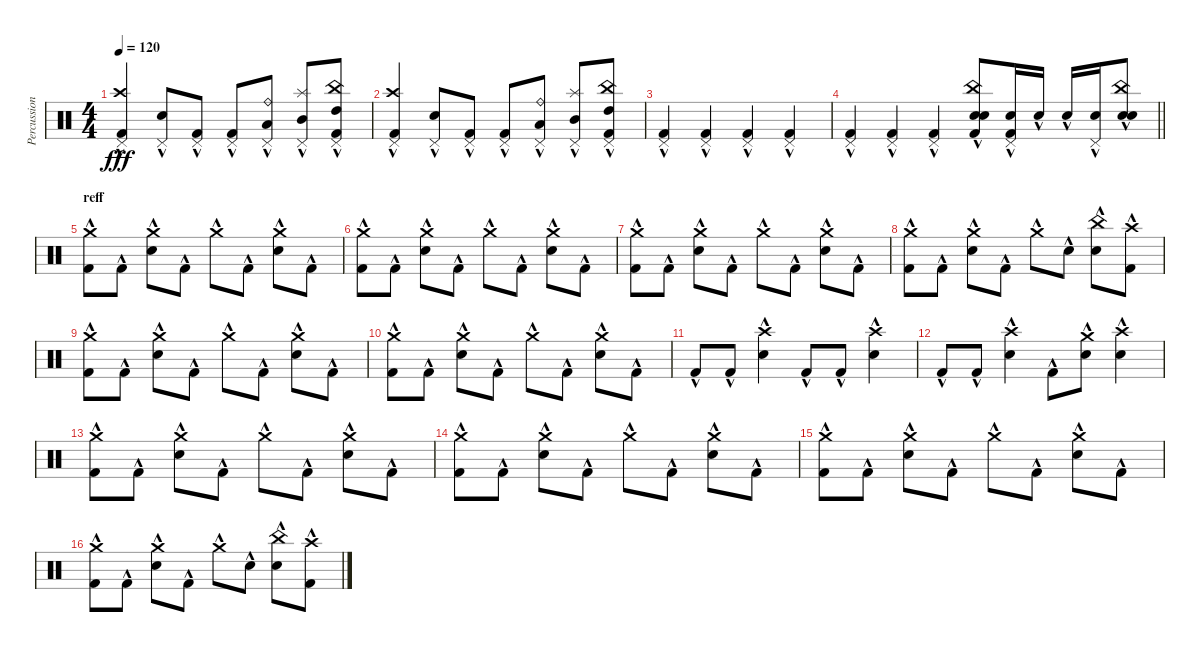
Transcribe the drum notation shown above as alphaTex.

\track ("Percussion" "Percussion") {instrument percussion}
\staff {score}
\articulation defaults
\ts (4 4)
\tempo 120
\clef neutral
\ks c
("Pedal Hi-Hat (hit)" "Crash high (hit)"{hac} "Kick (hit) 2"{hac}).4{dy fff} ("Pedal Hi-Hat (hit)" "Electric Snare (hit)"{hac}).8 ("Pedal Hi-Hat (hit)" "Kick (hit) 2"{hac}).8 ("Pedal Hi-Hat (hit)" "Kick (hit) 2"{hac}).8 ("Ride (bell)"{hac} "Low Tom (hit)"{hac} "Pedal Hi-Hat (hit)").8 ("Splash (hit)"{hac} "Mid Tom (hit)"{hac} "Pedal Hi-Hat (hit)").8 ("China (hit)"{hac} "High Tom (hit)"{hac} "Kick (hit) 2"{hac} "Pedal Hi-Hat (hit)").8 |
("Pedal Hi-Hat (hit)" "Crash high (hit)"{hac} "Kick (hit) 2"{hac}).4 ("Pedal Hi-Hat (hit)" "Electric Snare (hit)"{hac}).8 ("Pedal Hi-Hat (hit)" "Kick (hit) 2"{hac}).8 ("Pedal Hi-Hat (hit)" "Kick (hit) 2"{hac}).8 ("Ride (bell)"{hac} "Low Tom (hit)"{hac} "Pedal Hi-Hat (hit)").8 ("Splash (hit)"{hac} "Mid Tom (hit)"{hac} "Pedal Hi-Hat (hit)").8 ("China (hit)"{hac} "High Tom (hit)"{hac} "Kick (hit) 2"{hac} "Pedal Hi-Hat (hit)").8 |
("Pedal Hi-Hat (hit)"{hac} "Kick (hit) 2"{hac}).4 ("Pedal Hi-Hat (hit)"{hac} "Kick (hit) 2"{hac}).4 ("Pedal Hi-Hat (hit)"{hac} "Kick (hit) 2"{hac}).4 ("Pedal Hi-Hat (hit)"{hac} "Kick (hit) 2"{hac}).4 |
\barLineRight lightlight
("Pedal Hi-Hat (hit)"{hac} "Kick (hit) 2"{hac}).4 ("Pedal Hi-Hat (hit)"{hac} "Kick (hit) 2"{hac}).4 ("Pedal Hi-Hat (hit)"{hac} "Kick (hit) 2"{hac}).4 ("China (hit)"{hac} "Kick (hit) 2"{hac} "Electric Snare (hit)"{hac} "Hand Clap (hit)").8 ("Pedal Hi-Hat (hit)" "Kick (hit) 2"{hac} "Electric Snare (hit)"{hac}).16 "Electric Snare (hit)"{hac}.16 "Electric Snare (hit)"{hac}.16 ("Pedal Hi-Hat (hit)" "Electric Snare (hit)"{hac}).16 ("China (hit)"{hac} "Electric Snare (hit)"{hac} "Hand Clap (hit)").8 |
\section ("" "reff")
("Crash medium (hit)"{hac} "Kick (hit) 2"{hac}).8 "Kick (hit) 2"{hac}.8 ("Crash medium (hit)"{hac} "Electric Snare (hit)"{hac}).8 "Kick (hit) 2"{hac}.8 "Crash medium (hit)"{hac}.8 "Kick (hit) 2"{hac}.8 ("Crash medium (hit)"{hac} "Electric Snare (hit)"{hac}).8 "Kick (hit) 2"{hac}.8 |
("Crash medium (hit)"{hac} "Kick (hit) 2"{hac}).8 "Kick (hit) 2"{hac}.8 ("Crash medium (hit)"{hac} "Electric Snare (hit)"{hac}).8 "Kick (hit) 2"{hac}.8 "Crash medium (hit)"{hac}.8 "Kick (hit) 2"{hac}.8 ("Crash medium (hit)"{hac} "Electric Snare (hit)"{hac}).8 "Kick (hit) 2"{hac}.8 |
("Crash medium (hit)"{hac} "Kick (hit) 2"{hac}).8 "Kick (hit) 2"{hac}.8 ("Crash medium (hit)"{hac} "Electric Snare (hit)"{hac}).8 "Kick (hit) 2"{hac}.8 "Crash medium (hit)"{hac}.8 "Kick (hit) 2"{hac}.8 ("Crash medium (hit)"{hac} "Electric Snare (hit)"{hac}).8 "Kick (hit) 2"{hac}.8 |
("Crash medium (hit)"{hac} "Kick (hit) 2"{hac}).8 "Kick (hit) 2"{hac}.8 ("Crash medium (hit)"{hac} "Electric Snare (hit)"{hac}).8 "Kick (hit) 2"{hac}.8 "Crash medium (hit)"{hac}.8 "Electric Snare (hit)"{hac}.8 ("China (hit)"{hac} "Electric Snare (hit)"{hac}).8 ("Crash high (hit)"{hac} "Kick (hit) 2"{hac}).8 |
("Crash medium (hit)"{hac} "Kick (hit) 2"{hac}).8 "Kick (hit) 2"{hac}.8 ("Crash medium (hit)"{hac} "Electric Snare (hit)"{hac}).8 "Kick (hit) 2"{hac}.8 "Crash medium (hit)"{hac}.8 "Kick (hit) 2"{hac}.8 ("Crash medium (hit)"{hac} "Electric Snare (hit)"{hac}).8 "Kick (hit) 2"{hac}.8 |
("Crash medium (hit)"{hac} "Kick (hit) 2"{hac}).8 "Kick (hit) 2"{hac}.8 ("Crash medium (hit)"{hac} "Electric Snare (hit)"{hac}).8 "Kick (hit) 2"{hac}.8 "Crash medium (hit)"{hac}.8 "Kick (hit) 2"{hac}.8 ("Crash medium (hit)"{hac} "Electric Snare (hit)"{hac}).8 "Kick (hit) 2"{hac}.8 |
"Kick (hit) 2"{hac}.8 "Kick (hit) 2"{hac}.8 ("Crash high (hit)"{hac} "Electric Snare (hit)"{hac}).4 "Kick (hit) 2"{hac}.8 "Kick (hit) 2"{hac}.8 ("Crash high (hit)"{hac} "Electric Snare (hit)"{hac}).4 |
"Kick (hit) 2"{hac}.8 "Kick (hit) 2"{hac}.8 ("Crash high (hit)"{hac} "Electric Snare (hit)"{hac}).4 "Kick (hit) 2"{hac}.8 ("Crash medium (hit)"{hac} "Electric Snare (hit)"{hac}).8 ("Crash high (hit)"{hac} "Electric Snare (hit)"{hac}).4 |
("Crash medium (hit)"{hac} "Kick (hit) 2"{hac}).8 "Kick (hit) 2"{hac}.8 ("Crash medium (hit)"{hac} "Electric Snare (hit)"{hac}).8 "Kick (hit) 2"{hac}.8 "Crash medium (hit)"{hac}.8 "Kick (hit) 2"{hac}.8 ("Crash medium (hit)"{hac} "Electric Snare (hit)"{hac}).8 "Kick (hit) 2"{hac}.8 |
("Crash medium (hit)"{hac} "Kick (hit) 2"{hac}).8 "Kick (hit) 2"{hac}.8 ("Crash medium (hit)"{hac} "Electric Snare (hit)"{hac}).8 "Kick (hit) 2"{hac}.8 "Crash medium (hit)"{hac}.8 "Kick (hit) 2"{hac}.8 ("Crash medium (hit)"{hac} "Electric Snare (hit)"{hac}).8 "Kick (hit) 2"{hac}.8 |
("Crash medium (hit)"{hac} "Kick (hit) 2"{hac}).8 "Kick (hit) 2"{hac}.8 ("Crash medium (hit)"{hac} "Electric Snare (hit)"{hac}).8 "Kick (hit) 2"{hac}.8 "Crash medium (hit)"{hac}.8 "Kick (hit) 2"{hac}.8 ("Crash medium (hit)"{hac} "Electric Snare (hit)"{hac}).8 "Kick (hit) 2"{hac}.8 |
("Crash medium (hit)"{hac} "Kick (hit) 2"{hac}).8 "Kick (hit) 2"{hac}.8 ("Crash medium (hit)"{hac} "Electric Snare (hit)"{hac}).8 "Kick (hit) 2"{hac}.8 "Crash medium (hit)"{hac}.8 "Electric Snare (hit)"{hac}.8 ("China (hit)"{hac} "Electric Snare (hit)"{hac}).8 ("Crash high (hit)"{hac} "Kick (hit) 2"{hac}).8
